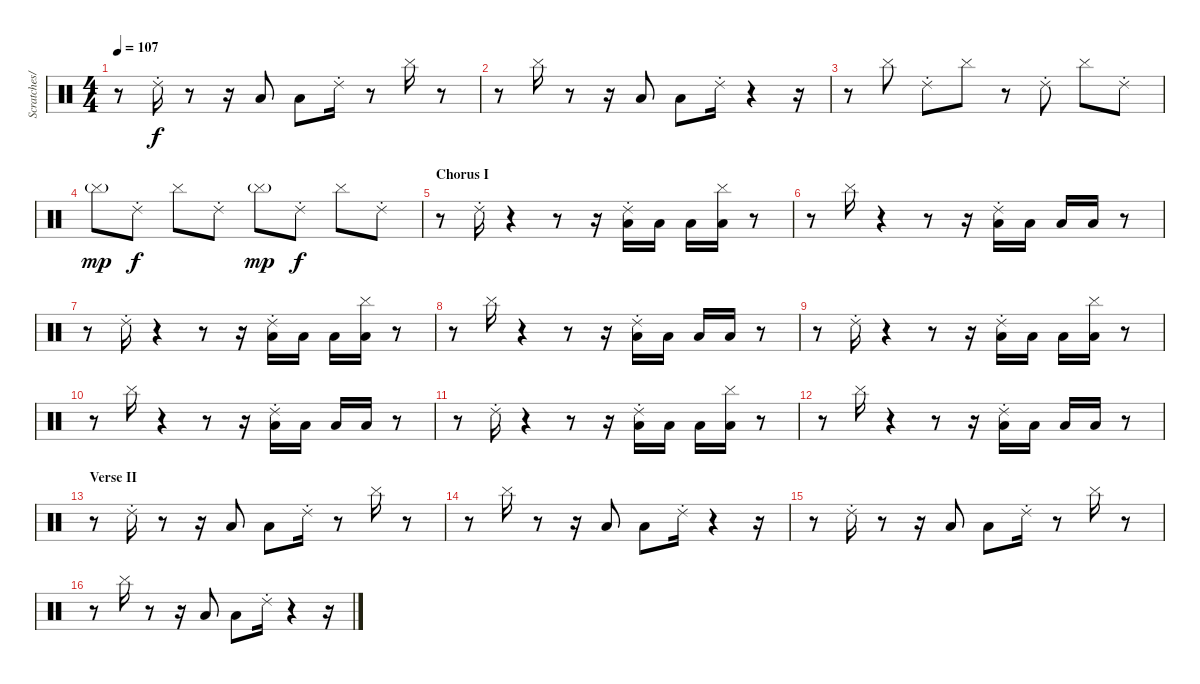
\track ("Scratches/Toms" "Scratches/") {instrument percussion}
\staff {score}
\articulation defaults
\ts (4 4)
\tempo 107
\clef neutral
\ks c
r.8{dy f} "Ride (choke) 2".16 r.8 r.16 "Low Floor Tom (hit)".8 "Low Floor Tom (hit)".8 "Ride (choke) 2".16 r.8 "Cymbal (hit)".16 r.8 |
r.8 "Cymbal (hit)".16 r.8 r.16 "Low Floor Tom (hit)".8 "Low Floor Tom (hit)".8 "Ride (choke) 2".16 r.4 r.16 |
r.8 "Cymbal (hit)".8 "Ride (choke) 2".8 "Cymbal (hit)".8 r.8 "Ride (choke) 2".8 "Cymbal (hit)".8 "Ride (choke) 2".8 |
"Cymbal (hit)"{g}.8{dy mp} "Ride (choke) 2".8{dy f} "Cymbal (hit)".8 "Ride (choke) 2".8 "Cymbal (hit)"{g}.8{dy mp} "Ride (choke) 2".8{dy f} "Cymbal (hit)".8 "Ride (choke) 2".8 |
\section ("" "Chorus I")
r.8 "Ride (choke) 2".16 r.4 r.8 r.16 ("Low Floor Tom (hit)" "Ride (choke) 2").16 "Low Floor Tom (hit)".16 "Low Floor Tom (hit)".16 ("Low Floor Tom (hit)" "Cymbal (hit)").16 r.8 |
r.8 "Cymbal (hit)".16 r.4 r.8 r.16 ("Low Floor Tom (hit)" "Ride (choke) 2").16 "Low Floor Tom (hit)".16 "Low Floor Tom (hit)".16 "Low Floor Tom (hit)".16 r.8 |
r.8 "Ride (choke) 2".16 r.4 r.8 r.16 ("Low Floor Tom (hit)" "Ride (choke) 2").16 "Low Floor Tom (hit)".16 "Low Floor Tom (hit)".16 ("Low Floor Tom (hit)" "Cymbal (hit)").16 r.8 |
r.8 "Cymbal (hit)".16 r.4 r.8 r.16 ("Low Floor Tom (hit)" "Ride (choke) 2").16 "Low Floor Tom (hit)".16 "Low Floor Tom (hit)".16 "Low Floor Tom (hit)".16 r.8 |
r.8 "Ride (choke) 2".16 r.4 r.8 r.16 ("Low Floor Tom (hit)" "Ride (choke) 2").16 "Low Floor Tom (hit)".16 "Low Floor Tom (hit)".16 ("Low Floor Tom (hit)" "Cymbal (hit)").16 r.8 |
r.8 "Cymbal (hit)".16 r.4 r.8 r.16 ("Low Floor Tom (hit)" "Ride (choke) 2").16 "Low Floor Tom (hit)".16 "Low Floor Tom (hit)".16 "Low Floor Tom (hit)".16 r.8 |
r.8 "Ride (choke) 2".16 r.4 r.8 r.16 ("Low Floor Tom (hit)" "Ride (choke) 2").16 "Low Floor Tom (hit)".16 "Low Floor Tom (hit)".16 ("Low Floor Tom (hit)" "Cymbal (hit)").16 r.8 |
r.8 "Cymbal (hit)".16 r.4 r.8 r.16 ("Low Floor Tom (hit)" "Ride (choke) 2").16 "Low Floor Tom (hit)".16 "Low Floor Tom (hit)".16 "Low Floor Tom (hit)".16 r.8 |
\section ("" "Verse II")
r.8 "Ride (choke) 2".16 r.8 r.16 "Low Floor Tom (hit)".8 "Low Floor Tom (hit)".8 "Ride (choke) 2".16 r.8 "Cymbal (hit)".16 r.8 |
r.8 "Cymbal (hit)".16 r.8 r.16 "Low Floor Tom (hit)".8 "Low Floor Tom (hit)".8 "Ride (choke) 2".16 r.4 r.16 |
r.8 "Ride (choke) 2".16 r.8 r.16 "Low Floor Tom (hit)".8 "Low Floor Tom (hit)".8 "Ride (choke) 2".16 r.8 "Cymbal (hit)".16 r.8 |
r.8 "Cymbal (hit)".16 r.8 r.16 "Low Floor Tom (hit)".8 "Low Floor Tom (hit)".8 "Ride (choke) 2".16 r.4 r.16
